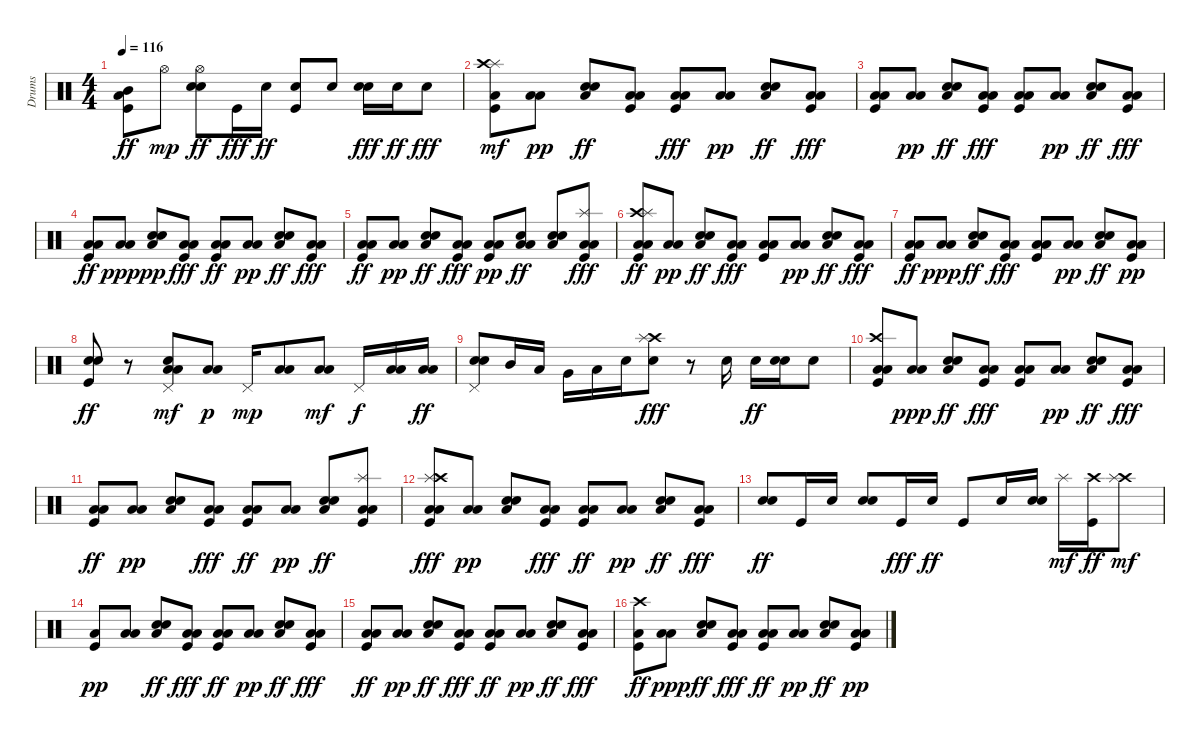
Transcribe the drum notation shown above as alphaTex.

\track ("Drums" "Drums") {instrument percussion}
\staff {score}
\articulation defaults
\ts (4 4)
\tempo 116
\clef neutral
\ks c
("Kick (hit)" "Mid Tom (hit)" "Low Tom (hit)").8{dy ff} "Hi-Hat (open)".8{dy mp} ("Hand Clap (hit)" "Snare (hit) 2" "Hi-Hat (open)").8{dy ff} "Kick (hit)".16{dy fff} "Snare (hit) 2".16{dy ff} ("Kick (hit)" "Snare (hit) 2").8 "Snare (hit) 2".8 ("Hand Clap (hit)" "Snare (hit) 2").16{dy fff} "Snare (hit) 2".16{dy ff} "Snare (hit) 2".8{dy fff} |
("Kick (hit)" "Low Tom (hit)" "Splash (hit)" "Crash high (hit)").8{dy mf} ("Low Tom (hit)" "Low Floor Tom (hit)").8{dy pp} ("Low Floor Tom (hit)" "Hand Clap (hit)" "Snare (hit) 2").8{dy ff} ("Low Tom (hit)" "Low Floor Tom (hit)" "Kick (hit)").8 ("Low Tom (hit)" "Low Floor Tom (hit)" "Kick (hit)").8{dy fff} ("Low Tom (hit)" "Low Floor Tom (hit)").8{dy pp} ("Low Floor Tom (hit)" "Hand Clap (hit)" "Snare (hit) 2").8{dy ff} ("Low Tom (hit)" "Low Floor Tom (hit)" "Kick (hit)").8{dy fff} |
("Low Tom (hit)" "Low Floor Tom (hit)" "Kick (hit)").8 ("Low Tom (hit)" "Low Floor Tom (hit)").8{dy pp} ("Snare (hit) 2" "Low Floor Tom (hit)" "Hand Clap (hit)").8{dy ff} ("Low Tom (hit)" "Low Floor Tom (hit)" "Kick (hit)").8{dy fff} ("Low Tom (hit)" "Low Floor Tom (hit)" "Kick (hit)").8 ("Low Floor Tom (hit)" "Low Tom (hit)").8{dy pp} ("Snare (hit) 2" "Low Floor Tom (hit)" "Hand Clap (hit)").8{dy ff} ("Low Tom (hit)" "Low Floor Tom (hit)" "Kick (hit)").8{dy fff} |
("Low Tom (hit)" "Low Floor Tom (hit)" "Kick (hit)").8{dy ff} ("Low Floor Tom (hit)" "Low Tom (hit)").8{dy ppp} ("Hand Clap (hit)" "Snare (hit) 2" "Low Floor Tom (hit)").8{dy pp} ("Low Tom (hit)" "Low Floor Tom (hit)" "Kick (hit)").8{dy fff} ("Low Tom (hit)" "Low Floor Tom (hit)" "Kick (hit)").8{dy ff} ("Low Tom (hit)" "Low Floor Tom (hit)").8{dy pp} ("Low Floor Tom (hit)" "Hand Clap (hit)" "Snare (hit) 2").8{dy ff} ("Low Tom (hit)" "Low Floor Tom (hit)" "Kick (hit)").8{dy fff} |
("Low Tom (hit)" "Low Floor Tom (hit)" "Kick (hit)").8{dy ff} ("Low Tom (hit)" "Low Floor Tom (hit)").8{dy pp} ("Snare (hit) 2" "Low Floor Tom (hit)" "Hand Clap (hit)").8{dy ff} ("Low Tom (hit)" "Low Floor Tom (hit)" "Kick (hit)").8{dy fff} ("Kick (hit)" "Low Tom (hit)" "Low Floor Tom (hit)").8{dy pp} ("Low Tom (hit)" "Low Floor Tom (hit)" "Snare (hit) 2").8{dy ff} ("Low Floor Tom (hit)" "Hand Clap (hit)" "Snare (hit) 2").8 ("Splash (hit)" "Low Tom (hit)" "Low Floor Tom (hit)" "Kick (hit)").8{dy fff} |
("Low Tom (hit)" "Low Floor Tom (hit)" "Kick (hit)" "Crash high (hit)" "Splash (hit)").8{dy ff} ("Low Tom (hit)" "Low Floor Tom (hit)").8{dy pp} ("Snare (hit) 2" "Low Floor Tom (hit)" "Hand Clap (hit)").8{dy ff} ("Low Tom (hit)" "Low Floor Tom (hit)" "Kick (hit)").8{dy fff} ("Low Tom (hit)" "Low Floor Tom (hit)" "Kick (hit)").8 ("Low Floor Tom (hit)" "Low Tom (hit)").8{dy pp} ("Low Floor Tom (hit)" "Hand Clap (hit)" "Snare (hit) 2").8{dy ff} ("Low Tom (hit)" "Low Floor Tom (hit)" "Kick (hit)").8{dy fff} |
("Low Tom (hit)" "Low Floor Tom (hit)" "Kick (hit)").8{dy ff} ("Low Floor Tom (hit)" "Low Tom (hit)").8{dy ppp} ("Snare (hit) 2" "Low Floor Tom (hit)" "Hand Clap (hit)").8{dy ff} ("Low Tom (hit)" "Low Floor Tom (hit)" "Kick (hit)").8{dy fff} ("Low Tom (hit)" "Low Floor Tom (hit)" "Kick (hit)").8 ("Low Tom (hit)" "Low Floor Tom (hit)").8{dy pp} ("Low Floor Tom (hit)" "Hand Clap (hit)" "Snare (hit) 2").8{dy ff} ("Kick (hit)" "Low Tom (hit)" "Low Floor Tom (hit)").8{dy pp} |
("Electric Snare (hit)" "Kick (hit)" "Snare (hit) 2").8{dy ff} r.8 ("Hand Clap (hit)" "Low Floor Tom (hit)" "Low Tom (hit)" "Pedal Hi-Hat (hit)").8{dy mf} ("Low Tom (hit)" "Low Floor Tom (hit)").8{dy p} "Pedal Hi-Hat (hit)".16{dy mp} ("Low Tom (hit)" "Low Floor Tom (hit)").8 ("Low Floor Tom (hit)" "Low Tom (hit)").8{dy mf} "Pedal Hi-Hat (hit)".16{dy f} ("Low Floor Tom (hit)" "Low Tom (hit)").16 ("Low Floor Tom (hit)" "Low Tom (hit)").16{dy ff} |
("Pedal Hi-Hat (hit)" "Electric Snare (hit)" "Snare (hit) 2").8 "Mid Tom (hit)".16 "Low Tom (hit)".16 "Very Low Tom (hit)".16 "Low Floor Tom (hit)".16 "Hand Clap (hit)".16 ("Crash high (hit)" "Splash (hit)" "Snare (hit) 2").8{dy fff} r.8 "Snare (hit) 2".16 "Snare (hit) 2".16{dy ff} ("Hand Clap (hit)" "Snare (hit) 2").16 "Snare (hit) 2".8 |
("Crash high (hit)" "Low Tom (hit)" "Low Floor Tom (hit)" "Kick (hit)").8 ("Low Floor Tom (hit)" "Low Tom (hit)").8{dy ppp} ("Snare (hit) 2" "Low Floor Tom (hit)" "Hand Clap (hit)").8{dy ff} ("Low Tom (hit)" "Low Floor Tom (hit)" "Kick (hit)").8{dy fff} ("Low Tom (hit)" "Low Floor Tom (hit)" "Kick (hit)").8 ("Low Tom (hit)" "Low Floor Tom (hit)").8{dy pp} ("Low Floor Tom (hit)" "Hand Clap (hit)" "Snare (hit) 2").8{dy ff} ("Low Tom (hit)" "Low Floor Tom (hit)" "Kick (hit)").8{dy fff} |
("Low Tom (hit)" "Low Floor Tom (hit)" "Kick (hit)").8{dy ff} ("Low Tom (hit)" "Low Floor Tom (hit)").8{dy pp} ("Hand Clap (hit)" "Snare (hit) 2" "Low Floor Tom (hit)").8 ("Low Tom (hit)" "Low Floor Tom (hit)" "Kick (hit)").8{dy fff} ("Low Tom (hit)" "Low Floor Tom (hit)" "Kick (hit)").8{dy ff} ("Low Tom (hit)" "Low Floor Tom (hit)").8{dy pp} ("Snare (hit) 2" "Low Floor Tom (hit)" "Hand Clap (hit)").8{dy ff} ("Low Tom (hit)" "Low Floor Tom (hit)" "Kick (hit)" "Splash (hit)").8 |
("Splash (hit)" "Low Tom (hit)" "Low Floor Tom (hit)" "Kick (hit)" "Crash high (hit)").8{dy fff} ("Low Tom (hit)" "Low Floor Tom (hit)").8{dy pp} ("Hand Clap (hit)" "Snare (hit) 2" "Low Floor Tom (hit)").8 ("Low Tom (hit)" "Low Floor Tom (hit)" "Kick (hit)").8{dy fff} ("Low Tom (hit)" "Low Floor Tom (hit)" "Kick (hit)").8{dy ff} ("Low Floor Tom (hit)" "Low Tom (hit)").8{dy pp} ("Low Floor Tom (hit)" "Hand Clap (hit)" "Snare (hit) 2").8{dy ff} ("Low Tom (hit)" "Low Floor Tom (hit)" "Kick (hit)").8{dy fff} |
("Snare (hit) 2" "Snare (hit) 2").8{dy ff} "Kick (hit)".16 "Snare (hit) 2".16 ("Hand Clap (hit)" "Snare (hit) 2").8 "Kick (hit)".16{dy fff} "Snare (hit) 2".16{dy ff} "Kick (hit)".8 "Snare (hit) 2".16 ("Hand Clap (hit)" "Snare (hit) 2").16 "Splash (hit)".16{dy mf} ("Crash high (hit)" "Kick (hit)").16{dy ff} ("Crash high (hit)" "Splash (hit)").8{dy mf} |
("Kick (hit)" "Low Tom (hit)").8{dy pp} ("Low Tom (hit)" "Low Floor Tom (hit)").8 ("Snare (hit) 2" "Low Floor Tom (hit)" "Hand Clap (hit)").8{dy ff} ("Low Tom (hit)" "Low Floor Tom (hit)" "Kick (hit)").8{dy fff} ("Low Tom (hit)" "Low Floor Tom (hit)" "Kick (hit)").8{dy ff} ("Low Tom (hit)" "Low Floor Tom (hit)").8{dy pp} ("Snare (hit) 2" "Low Floor Tom (hit)" "Hand Clap (hit)").8{dy ff} ("Low Tom (hit)" "Low Floor Tom (hit)" "Kick (hit)").8{dy fff} |
("Low Tom (hit)" "Low Floor Tom (hit)" "Kick (hit)").8{dy ff} ("Low Tom (hit)" "Low Floor Tom (hit)").8{dy pp} ("Snare (hit) 2" "Low Floor Tom (hit)" "Hand Clap (hit)").8{dy ff} ("Low Tom (hit)" "Low Floor Tom (hit)" "Kick (hit)").8{dy fff} ("Low Tom (hit)" "Low Floor Tom (hit)" "Kick (hit)").8{dy ff} ("Low Floor Tom (hit)" "Low Tom (hit)").8{dy pp} ("Low Floor Tom (hit)" "Hand Clap (hit)" "Snare (hit) 2").8{dy ff} ("Low Tom (hit)" "Low Floor Tom (hit)" "Kick (hit)").8{dy fff} |
("Crash high (hit)" "Low Tom (hit)" "Kick (hit)").8{dy ff} ("Low Floor Tom (hit)" "Low Tom (hit)").8{dy ppp} ("Low Floor Tom (hit)" "Hand Clap (hit)" "Snare (hit) 2").8{dy ff} ("Low Tom (hit)" "Low Floor Tom (hit)" "Kick (hit)").8{dy fff} ("Low Tom (hit)" "Low Floor Tom (hit)" "Kick (hit)").8{dy ff} ("Low Tom (hit)" "Low Floor Tom (hit)").8{dy pp} ("Low Floor Tom (hit)" "Hand Clap (hit)" "Snare (hit) 2").8{dy ff} ("Kick (hit)" "Low Tom (hit)" "Low Floor Tom (hit)").8{dy pp}
